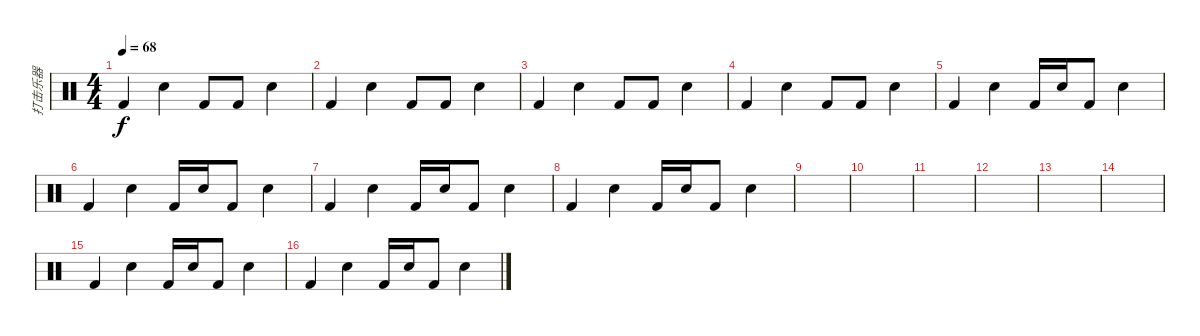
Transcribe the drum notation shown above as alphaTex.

\track ("打击乐器" "打击乐器") {instrument percussion}
\staff {score}
\articulation defaults
\ts (4 4)
\tempo 68
\clef neutral
\ks c "Kick (hit) 2".4{dy f} "Snare (hit) 2".4 "Kick (hit) 2".8 "Kick (hit) 2".8 "Snare (hit) 2".4
|
"Kick (hit) 2".4 "Snare (hit) 2".4 "Kick (hit) 2".8 "Kick (hit) 2".8 "Snare (hit) 2".4 |
"Kick (hit) 2".4 "Snare (hit) 2".4 "Kick (hit) 2".8 "Kick (hit) 2".8 "Snare (hit) 2".4 |
"Kick (hit) 2".4 "Snare (hit) 2".4 "Kick (hit) 2".8 "Kick (hit) 2".8 "Snare (hit) 2".4 |
"Kick (hit) 2".4 "Snare (hit) 2".4 "Kick (hit) 2".16 "Snare (hit) 2".16 "Kick (hit) 2".8 "Snare (hit) 2".4 |
"Kick (hit) 2".4 "Snare (hit) 2".4 "Kick (hit) 2".16 "Snare (hit) 2".16 "Kick (hit) 2".8 "Snare (hit) 2".4 |
"Kick (hit) 2".4 "Snare (hit) 2".4 "Kick (hit) 2".16 "Snare (hit) 2".16 "Kick (hit) 2".8 "Snare (hit) 2".4 |
"Kick (hit) 2".4 "Snare (hit) 2".4 "Kick (hit) 2".16 "Snare (hit) 2".16 "Kick (hit) 2".8 "Snare (hit) 2".4 |
|
|
|
|
|
|
"Kick (hit) 2".4 "Snare (hit) 2".4 "Kick (hit) 2".16 "Snare (hit) 2".16 "Kick (hit) 2".8 "Snare (hit) 2".4 |
"Kick (hit) 2".4 "Snare (hit) 2".4 "Kick (hit) 2".16 "Snare (hit) 2".16 "Kick (hit) 2".8 "Snare (hit) 2".4
